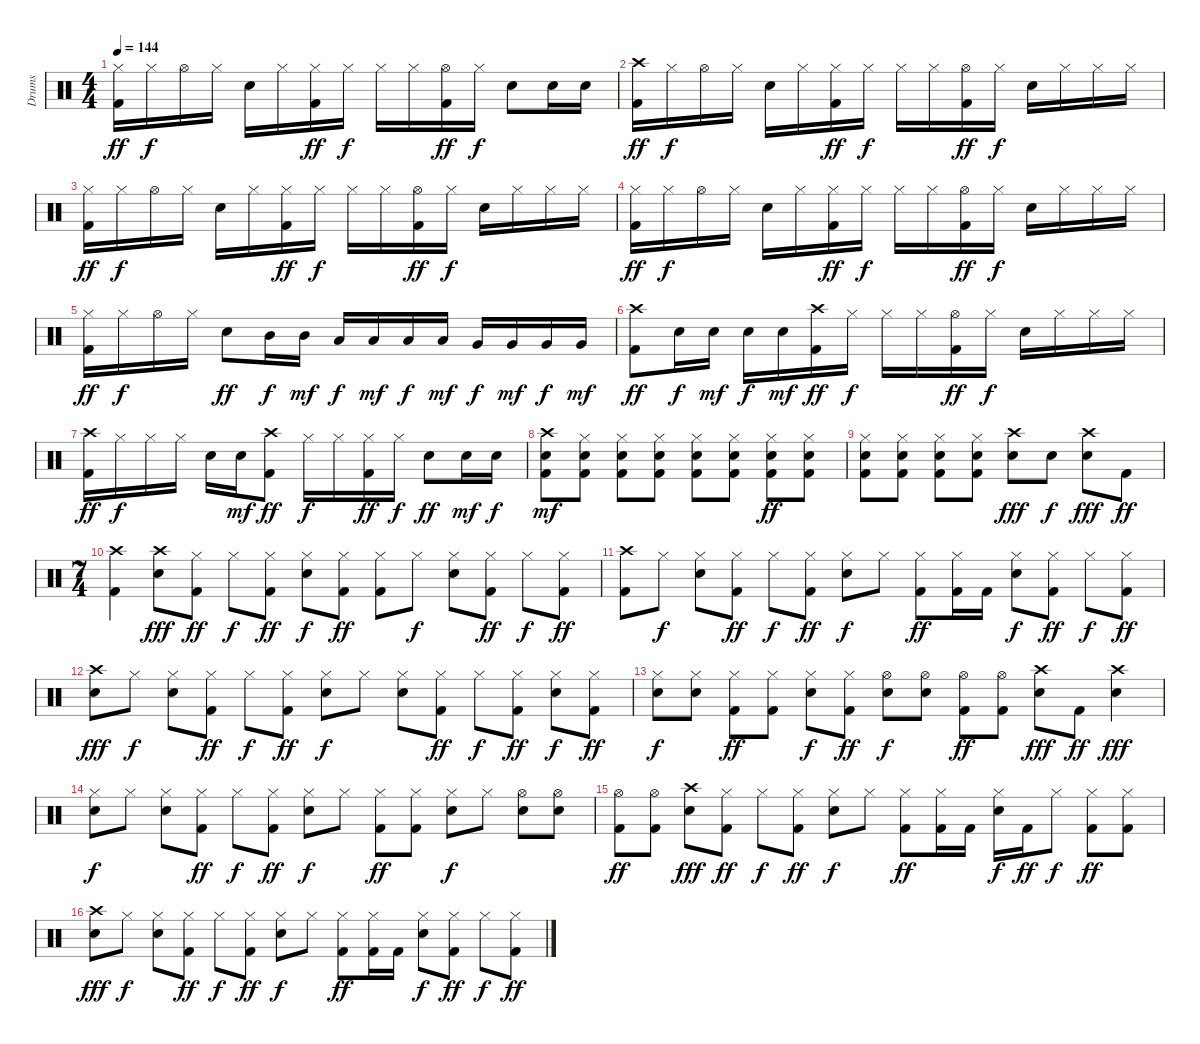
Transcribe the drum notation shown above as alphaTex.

\track ("Drums" "Drums") {instrument percussion}
\staff {score}
\articulation defaults
\ts (4 4)
\tempo 144
\clef neutral
\ks c
("Hi-Hat (closed)" "Kick (hit) 2").16{dy ff} "Hi-Hat (closed)".16{dy f} "Hi-Hat (open)".16 "Hi-Hat (closed)".16 "Snare (hit) 2".16 "Hi-Hat (closed)".16 ("Hi-Hat (closed)" "Kick (hit) 2").16{dy ff} "Hi-Hat (closed)".16{dy f} "Hi-Hat (closed)".16 "Hi-Hat (closed)".16 ("Hi-Hat (open)" "Kick (hit) 2").16{dy ff} "Hi-Hat (closed)".16{dy f} "Snare (hit) 2".8 "Snare (hit) 2".16 "Snare (hit) 2".16 |
("Crash high (hit)" "Kick (hit) 2").16{dy ff} "Hi-Hat (closed)".16{dy f} "Hi-Hat (open)".16 "Hi-Hat (closed)".16 "Snare (hit) 2".16 "Hi-Hat (closed)".16 ("Hi-Hat (closed)" "Kick (hit) 2").16{dy ff} "Hi-Hat (closed)".16{dy f} "Hi-Hat (closed)".16 "Hi-Hat (closed)".16 ("Hi-Hat (open)" "Kick (hit) 2").16{dy ff} "Hi-Hat (closed)".16{dy f} "Snare (hit) 2".16 "Hi-Hat (closed)".16 "Hi-Hat (closed)".16 "Hi-Hat (closed)".16 |
("Hi-Hat (closed)" "Kick (hit) 2").16{dy ff} "Hi-Hat (closed)".16{dy f} "Hi-Hat (open)".16 "Hi-Hat (closed)".16 "Snare (hit) 2".16 "Hi-Hat (closed)".16 ("Hi-Hat (closed)" "Kick (hit) 2").16{dy ff} "Hi-Hat (closed)".16{dy f} "Hi-Hat (closed)".16 "Hi-Hat (closed)".16 ("Hi-Hat (open)" "Kick (hit) 2").16{dy ff} "Hi-Hat (closed)".16{dy f} "Snare (hit) 2".16 "Hi-Hat (closed)".16 "Hi-Hat (closed)".16 "Hi-Hat (closed)".16 |
("Hi-Hat (closed)" "Kick (hit) 2").16{dy ff} "Hi-Hat (closed)".16{dy f} "Hi-Hat (open)".16 "Hi-Hat (closed)".16 "Snare (hit) 2".16 "Hi-Hat (closed)".16 ("Hi-Hat (closed)" "Kick (hit) 2").16{dy ff} "Hi-Hat (closed)".16{dy f} "Hi-Hat (closed)".16 "Hi-Hat (closed)".16 ("Hi-Hat (open)" "Kick (hit) 2").16{dy ff} "Hi-Hat (closed)".16{dy f} "Snare (hit) 2".16 "Hi-Hat (closed)".16 "Hi-Hat (closed)".16 "Hi-Hat (closed)".16 |
("Hi-Hat (closed)" "Kick (hit) 2").16{dy ff} "Hi-Hat (closed)".16{dy f} "Hi-Hat (open)".16 "Hi-Hat (closed)".16 "Snare (hit) 2".8{dy ff} "Mid Tom (hit)".16{dy f} "Mid Tom (hit)".16{dy mf} "Low Tom (hit)".16{dy f} "Low Tom (hit)".16{dy mf} "Low Tom (hit)".16{dy f} "Low Tom (hit)".16{dy mf} "Very Low Tom (hit)".16{dy f} "Very Low Tom (hit)".16{dy mf} "Very Low Tom (hit)".16{dy f} "Very Low Tom (hit)".16{dy mf} |
("Crash high (hit)" "Kick (hit) 2").8{dy ff} "Snare (hit) 2".16{dy f} "Snare (hit) 2".16{dy mf} "Snare (hit) 2".16{dy f} "Snare (hit) 2".16{dy mf} ("Crash high (hit)" "Kick (hit) 2").16{dy ff} "Hi-Hat (closed)".16{dy f} "Hi-Hat (closed)".16 "Hi-Hat (closed)".16 ("Hi-Hat (open)" "Kick (hit) 2").16{dy ff} "Hi-Hat (closed)".16{dy f} "Snare (hit) 2".16 "Hi-Hat (closed)".16 "Hi-Hat (closed)".16 "Hi-Hat (closed)".16 |
("Crash high (hit)" "Kick (hit) 2").16{dy ff} "Hi-Hat (closed)".16{dy f} "Hi-Hat (closed)".16 "Hi-Hat (closed)".16 "Snare (hit) 2".16 "Snare (hit) 2".16{dy mf} ("Crash high (hit)" "Kick (hit) 2").8{dy ff} "Hi-Hat (closed)".16{dy f} "Hi-Hat (closed)".16 ("Hi-Hat (closed)" "Kick (hit) 2").16{dy ff} "Hi-Hat (closed)".16{dy f} "Snare (hit) 2".8{dy ff} "Snare (hit) 2".16{dy mf} "Snare (hit) 2".16{dy f} |
("Crash high (hit)" "Snare (hit) 2" "Kick (hit) 2").8{dy mf} ("Hi-Hat (closed)" "Snare (hit) 2" "Kick (hit) 2").8 ("Hi-Hat (closed)" "Snare (hit) 2" "Kick (hit) 2").8 ("Hi-Hat (closed)" "Snare (hit) 2" "Kick (hit) 2").8 ("Hi-Hat (closed)" "Snare (hit) 2" "Kick (hit) 2").8 ("Hi-Hat (closed)" "Snare (hit) 2" "Kick (hit) 2").8 ("Hi-Hat (closed)" "Snare (hit) 2" "Kick (hit) 2").8{dy ff} ("Hi-Hat (closed)" "Snare (hit) 2" "Kick (hit) 2").8 |
("Hi-Hat (closed)" "Snare (hit) 2" "Kick (hit) 2").8 ("Hi-Hat (closed)" "Snare (hit) 2" "Kick (hit) 2").8 ("Hi-Hat (closed)" "Snare (hit) 2" "Kick (hit) 2").8 ("Hi-Hat (closed)" "Snare (hit) 2" "Kick (hit) 2").8 ("Crash high (hit)" "Snare (hit) 2").8{dy fff} "Snare (hit) 2".8{dy f} ("Crash high (hit)" "Snare (hit) 2").8{dy fff} "Kick (hit) 2".8{dy ff} |
\ts (7 4)
("Crash high (hit)" "Kick (hit) 2").4 ("Crash high (hit)" "Snare (hit) 2").8{dy fff} ("Hi-Hat (closed)" "Kick (hit) 2").8{dy ff} "Hi-Hat (closed)".8{dy f} ("Hi-Hat (closed)" "Kick (hit) 2").8{dy ff} ("Hi-Hat (closed)" "Snare (hit) 2").8{dy f} ("Hi-Hat (closed)" "Kick (hit) 2").8{dy ff} ("Hi-Hat (closed)" "Kick (hit) 2").8 "Hi-Hat (closed)".8{dy f} ("Hi-Hat (closed)" "Snare (hit) 2").8 ("Hi-Hat (closed)" "Kick (hit) 2").8{dy ff} "Hi-Hat (closed)".8{dy f} ("Hi-Hat (closed)" "Kick (hit) 2").8{dy ff} |
("Crash high (hit)" "Kick (hit) 2").8 "Hi-Hat (closed)".8{dy f} ("Hi-Hat (closed)" "Snare (hit) 2").8 ("Hi-Hat (closed)" "Kick (hit) 2").8{dy ff} "Hi-Hat (closed)".8{dy f} ("Hi-Hat (closed)" "Kick (hit) 2").8{dy ff} ("Hi-Hat (closed)" "Snare (hit) 2").8{dy f} "Hi-Hat (closed)".8 ("Hi-Hat (closed)" "Kick (hit) 2").8{dy ff} ("Hi-Hat (closed)" "Kick (hit) 2").16 "Kick (hit) 2".16 ("Hi-Hat (closed)" "Snare (hit) 2").8{dy f} ("Hi-Hat (closed)" "Kick (hit) 2").8{dy ff} "Hi-Hat (closed)".8{dy f} ("Hi-Hat (closed)" "Kick (hit) 2").8{dy ff} |
("Crash high (hit)" "Snare (hit) 2").8{dy fff} "Hi-Hat (closed)".8{dy f} ("Hi-Hat (closed)" "Snare (hit) 2").8 ("Hi-Hat (closed)" "Kick (hit) 2").8{dy ff} "Hi-Hat (closed)".8{dy f} ("Hi-Hat (closed)" "Kick (hit) 2").8{dy ff} ("Hi-Hat (closed)" "Snare (hit) 2").8{dy f} "Hi-Hat (closed)".8 ("Hi-Hat (closed)" "Snare (hit) 2").8 ("Hi-Hat (closed)" "Kick (hit) 2").8{dy ff} "Hi-Hat (closed)".8{dy f} ("Hi-Hat (closed)" "Kick (hit) 2").8{dy ff} ("Hi-Hat (closed)" "Snare (hit) 2").8{dy f} ("Hi-Hat (closed)" "Kick (hit) 2").8{dy ff} |
("Hi-Hat (closed)" "Snare (hit) 2").8{dy f} ("Hi-Hat (closed)" "Snare (hit) 2").8 ("Hi-Hat (closed)" "Kick (hit) 2").8{dy ff} ("Hi-Hat (closed)" "Kick (hit) 2").8 ("Hi-Hat (closed)" "Snare (hit) 2").8{dy f} ("Hi-Hat (closed)" "Kick (hit) 2").8{dy ff} ("Hi-Hat (open)" "Snare (hit) 2").8{dy f} ("Hi-Hat (open)" "Snare (hit) 2").8 ("Hi-Hat (open)" "Kick (hit) 2").8{dy ff} ("Hi-Hat (open)" "Kick (hit) 2").8 ("Crash high (hit)" "Snare (hit) 2").8{dy fff} "Kick (hit) 2".8{dy ff} ("Crash high (hit)" "Snare (hit) 2").4{dy fff} |
("Hi-Hat (closed)" "Snare (hit) 2").8{dy f} "Hi-Hat (closed)".8 ("Hi-Hat (closed)" "Snare (hit) 2").8 ("Hi-Hat (closed)" "Kick (hit) 2").8{dy ff} "Hi-Hat (closed)".8{dy f} ("Hi-Hat (closed)" "Kick (hit) 2").8{dy ff} ("Hi-Hat (closed)" "Snare (hit) 2").8{dy f} "Hi-Hat (closed)".8 ("Hi-Hat (closed)" "Kick (hit) 2").8{dy ff} ("Hi-Hat (closed)" "Kick (hit) 2").8 ("Hi-Hat (closed)" "Snare (hit) 2").8{dy f} "Hi-Hat (closed)".8 ("Hi-Hat (open)" "Snare (hit) 2").8 ("Hi-Hat (open)" "Snare (hit) 2").8 |
("Hi-Hat (open)" "Kick (hit) 2").8{dy ff} ("Hi-Hat (open)" "Kick (hit) 2").8 ("Crash high (hit)" "Snare (hit) 2").8{dy fff} ("Hi-Hat (closed)" "Kick (hit) 2").8{dy ff} "Hi-Hat (closed)".8{dy f} ("Hi-Hat (closed)" "Kick (hit) 2").8{dy ff} ("Hi-Hat (closed)" "Snare (hit) 2").8{dy f} "Hi-Hat (closed)".8 ("Hi-Hat (closed)" "Kick (hit) 2").8{dy ff} ("Hi-Hat (closed)" "Kick (hit) 2").16 "Kick (hit) 2".16 ("Hi-Hat (closed)" "Snare (hit) 2").16{dy f} "Kick (hit) 2".16{dy ff} "Hi-Hat (closed)".8{dy f} ("Hi-Hat (closed)" "Kick (hit) 2").8{dy ff} ("Hi-Hat (closed)" "Kick (hit) 2").8 |
("Crash high (hit)" "Snare (hit) 2").8{dy fff} "Hi-Hat (closed)".8{dy f} ("Hi-Hat (closed)" "Snare (hit) 2").8 ("Hi-Hat (closed)" "Kick (hit) 2").8{dy ff} "Hi-Hat (closed)".8{dy f} ("Hi-Hat (closed)" "Kick (hit) 2").8{dy ff} ("Hi-Hat (closed)" "Snare (hit) 2").8{dy f} "Hi-Hat (closed)".8 ("Hi-Hat (closed)" "Kick (hit) 2").8{dy ff} ("Hi-Hat (closed)" "Kick (hit) 2").16 "Kick (hit) 2".16 ("Hi-Hat (closed)" "Snare (hit) 2").8{dy f} ("Hi-Hat (closed)" "Kick (hit) 2").8{dy ff} "Hi-Hat (closed)".8{dy f} ("Hi-Hat (closed)" "Kick (hit) 2").8{dy ff}
